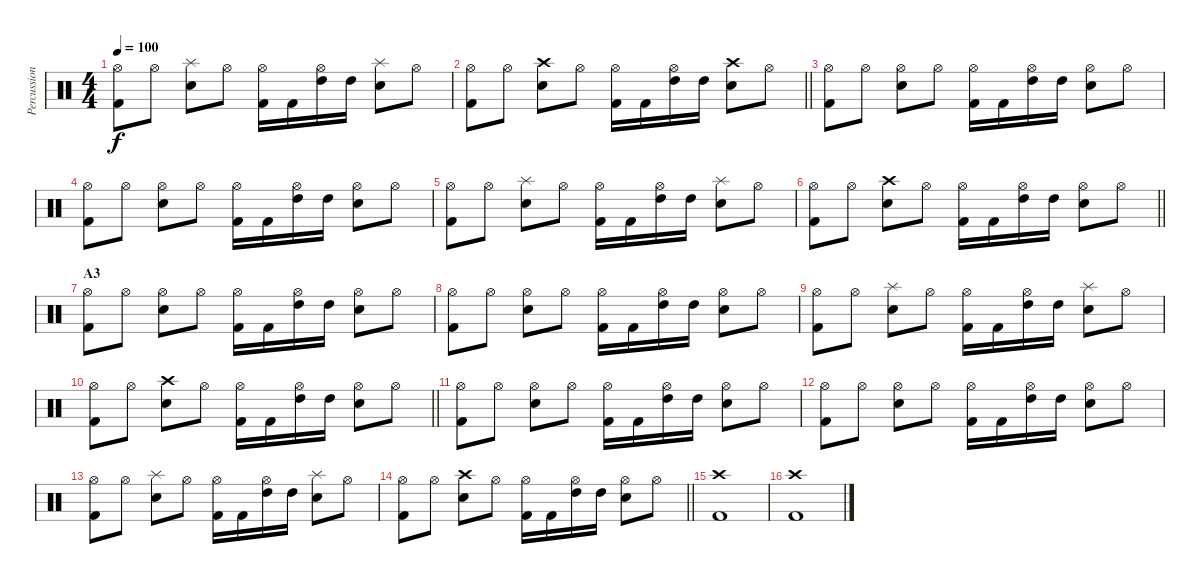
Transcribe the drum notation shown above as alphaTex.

\track ("Percussion" "Percussion") {instrument percussion}
\staff {score}
\articulation defaults
\ts (4 4)
\tempo 100
\clef neutral
\ks c
("Hi-Hat (open)" "Kick (hit) 2").8{dy f} "Hi-Hat (open)".8 ("Splash (hit)" "Snare (hit) 2").8 "Hi-Hat (open)".8 ("Hi-Hat (open)" "Kick (hit) 2").16 "Kick (hit) 2".16 ("Hi-Hat (open)" "High Tom (hit)").16 "High Tom (hit)".16 ("Splash (hit)" "Snare (hit) 2").8 "Hi-Hat (open)".8 |
\barLineRight lightlight
("Hi-Hat (open)" "Kick (hit) 2").8 "Hi-Hat (open)".8 ("Crash high (hit)" "Snare (hit) 2").8 "Hi-Hat (open)".8 ("Hi-Hat (open)" "Kick (hit) 2").16 "Kick (hit) 2".16 ("Hi-Hat (open)" "High Tom (hit)").16 "High Tom (hit)".16 ("Crash high (hit)" "Snare (hit) 2").8 "Hi-Hat (open)".8 |
("Hi-Hat (open)" "Kick (hit) 2").8 "Hi-Hat (open)".8 ("Hi-Hat (open)" "Snare (hit) 2").8 "Hi-Hat (open)".8 ("Hi-Hat (open)" "Kick (hit) 2").16 "Kick (hit) 2".16 ("Hi-Hat (open)" "High Tom (hit)").16 "High Tom (hit)".16 ("Hi-Hat (open)" "Snare (hit) 2").8 "Hi-Hat (open)".8 |
("Hi-Hat (open)" "Kick (hit) 2").8 "Hi-Hat (open)".8 ("Hi-Hat (open)" "Snare (hit) 2").8 "Hi-Hat (open)".8 ("Hi-Hat (open)" "Kick (hit) 2").16 "Kick (hit) 2".16 ("Hi-Hat (open)" "High Tom (hit)").16 "High Tom (hit)".16 ("Hi-Hat (open)" "Snare (hit) 2").8 "Hi-Hat (open)".8 |
("Hi-Hat (open)" "Kick (hit) 2").8 "Hi-Hat (open)".8 ("Splash (hit)" "Snare (hit) 2").8 "Hi-Hat (open)".8 ("Hi-Hat (open)" "Kick (hit) 2").16 "Kick (hit) 2".16 ("Hi-Hat (open)" "High Tom (hit)").16 "High Tom (hit)".16 ("Splash (hit)" "Snare (hit) 2").8 "Hi-Hat (open)".8 |
\barLineRight lightlight
("Hi-Hat (open)" "Kick (hit) 2").8 "Hi-Hat (open)".8 ("Crash high (hit)" "Snare (hit) 2").8 "Hi-Hat (open)".8 ("Hi-Hat (open)" "Kick (hit) 2").16 "Kick (hit) 2".16 ("Hi-Hat (open)" "High Tom (hit)").16 "High Tom (hit)".16 ("Hi-Hat (open)" "Snare (hit) 2").8 "Hi-Hat (open)".8 |
\section ("" "A3")
("Hi-Hat (open)" "Kick (hit) 2").8 "Hi-Hat (open)".8 ("Hi-Hat (open)" "Snare (hit) 2").8 "Hi-Hat (open)".8 ("Hi-Hat (open)" "Kick (hit) 2").16 "Kick (hit) 2".16 ("Hi-Hat (open)" "High Tom (hit)").16 "High Tom (hit)".16 ("Hi-Hat (open)" "Snare (hit) 2").8 "Hi-Hat (open)".8 |
("Hi-Hat (open)" "Kick (hit) 2").8 "Hi-Hat (open)".8 ("Hi-Hat (open)" "Snare (hit) 2").8 "Hi-Hat (open)".8 ("Hi-Hat (open)" "Kick (hit) 2").16 "Kick (hit) 2".16 ("Hi-Hat (open)" "High Tom (hit)").16 "High Tom (hit)".16 ("Hi-Hat (open)" "Snare (hit) 2").8 "Hi-Hat (open)".8 |
("Hi-Hat (open)" "Kick (hit) 2").8 "Hi-Hat (open)".8 ("Splash (hit)" "Snare (hit) 2").8 "Hi-Hat (open)".8 ("Hi-Hat (open)" "Kick (hit) 2").16 "Kick (hit) 2".16 ("Hi-Hat (open)" "High Tom (hit)").16 "High Tom (hit)".16 ("Splash (hit)" "Snare (hit) 2").8 "Hi-Hat (open)".8 |
\barLineRight lightlight
("Hi-Hat (open)" "Kick (hit) 2").8 "Hi-Hat (open)".8 ("Crash high (hit)" "Snare (hit) 2").8 "Hi-Hat (open)".8 ("Hi-Hat (open)" "Kick (hit) 2").16 "Kick (hit) 2".16 ("Hi-Hat (open)" "High Tom (hit)").16 "High Tom (hit)".16 ("Hi-Hat (open)" "Snare (hit) 2").8 "Hi-Hat (open)".8 |
("Hi-Hat (open)" "Kick (hit) 2").8 "Hi-Hat (open)".8 ("Hi-Hat (open)" "Snare (hit) 2").8 "Hi-Hat (open)".8 ("Hi-Hat (open)" "Kick (hit) 2").16 "Kick (hit) 2".16 ("Hi-Hat (open)" "High Tom (hit)").16 "High Tom (hit)".16 ("Hi-Hat (open)" "Snare (hit) 2").8 "Hi-Hat (open)".8 |
("Hi-Hat (open)" "Kick (hit) 2").8 "Hi-Hat (open)".8 ("Hi-Hat (open)" "Snare (hit) 2").8 "Hi-Hat (open)".8 ("Hi-Hat (open)" "Kick (hit) 2").16 "Kick (hit) 2".16 ("Hi-Hat (open)" "High Tom (hit)").16 "High Tom (hit)".16 ("Hi-Hat (open)" "Snare (hit) 2").8 "Hi-Hat (open)".8 |
("Hi-Hat (open)" "Kick (hit) 2").8 "Hi-Hat (open)".8 ("Splash (hit)" "Snare (hit) 2").8 "Hi-Hat (open)".8 ("Hi-Hat (open)" "Kick (hit) 2").16 "Kick (hit) 2".16 ("Hi-Hat (open)" "High Tom (hit)").16 "High Tom (hit)".16 ("Splash (hit)" "Snare (hit) 2").8 "Hi-Hat (open)".8 |
\barLineRight lightlight
("Hi-Hat (open)" "Kick (hit) 2").8 "Hi-Hat (open)".8 ("Crash high (hit)" "Snare (hit) 2").8 "Hi-Hat (open)".8 ("Hi-Hat (open)" "Kick (hit) 2").16 "Kick (hit) 2".16 ("Hi-Hat (open)" "High Tom (hit)").16 "High Tom (hit)".16 ("Hi-Hat (open)" "Snare (hit) 2").8 "Hi-Hat (open)".8 |
("Crash high (hit)" "Kick (hit) 2").1 |
("Crash high (hit)" "Kick (hit) 2").1
